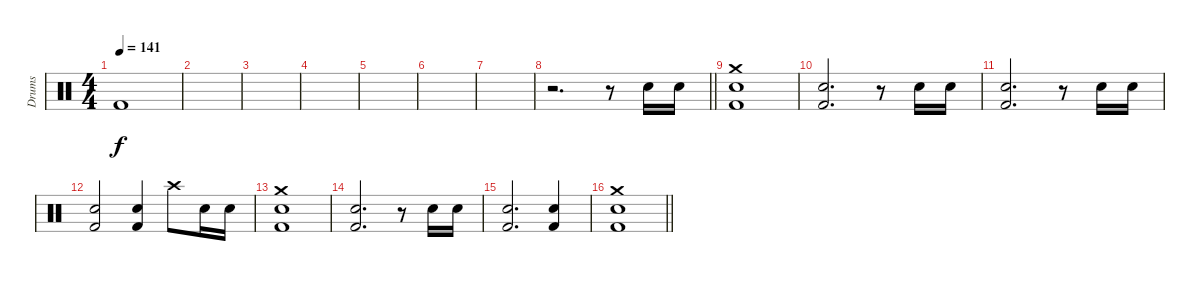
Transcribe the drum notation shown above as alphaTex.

\track ("Drums" "Drums") {instrument percussion}
\staff {score}
\articulation defaults
\ts (4 4)
\tempo 141
\clef neutral
\ks c "Kick (hit) 2".1{dy f}
|
|
|
|
|
|
|
\barLineRight lightlight
r.2{d} r.8 "Snare (hit) 2".16 "Snare (hit) 2".16 |
("Crash medium (hit)" "Snare (hit) 2" "Kick (hit) 2").1 |
("Snare (hit) 2" "Kick (hit) 2").2{d} r.8 "Snare (hit) 2".16 "Snare (hit) 2".16 |
("Snare (hit) 2" "Kick (hit) 2").2{d} r.8 "Snare (hit) 2".16 "Snare (hit) 2".16 |
("Snare (hit) 2" "Kick (hit) 2").2 ("Snare (hit) 2" "Kick (hit) 2").4 "Crash high (hit)".8 "Snare (hit) 2".16 "Snare (hit) 2".16 |
("Crash medium (hit)" "Snare (hit) 2" "Kick (hit) 2").1 |
("Snare (hit) 2" "Kick (hit) 2").2{d} r.8 "Snare (hit) 2".16 "Snare (hit) 2".16 |
("Snare (hit) 2" "Kick (hit) 2").2{d} ("Snare (hit) 2" "Kick (hit) 2").4 |
\barLineRight lightlight
("Crash medium (hit)" "Snare (hit) 2" "Kick (hit) 2").1
